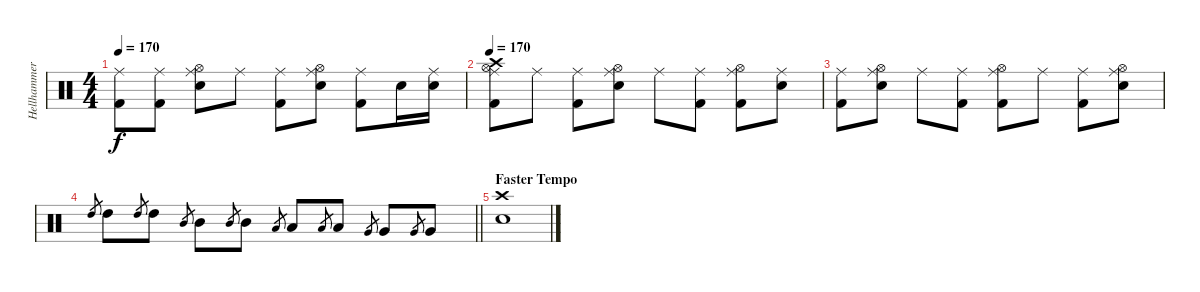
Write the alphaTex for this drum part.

\track ("Hellhammer" "Hellhammer") {instrument percussion}
\staff {score}
\articulation defaults
\ts (4 4)
\tempo 170
\clef neutral
\ks c
("Ride (middle)" "Kick (hit) 2").8{dy f} ("Ride (middle)" "Kick (hit) 2").8 ("Ride (middle)" "Hi-Hat (open)" "Snare (hit) 2").8 "Ride (middle)".8 ("Ride (middle)" "Kick (hit) 2").8 ("Ride (middle)" "Hi-Hat (open)" "Snare (hit) 2").8 ("Ride (middle)" "Kick (hit) 2").8 "Snare (hit) 2".16 ("Ride (middle)" "Snare (hit) 2").16 |
\tempo 170
("Ride (middle)" "Crash high (hit)" "Hi-Hat (open)" "Kick (hit) 2").8 "Ride (middle)".8 ("Ride (middle)" "Kick (hit) 2").8 ("Ride (middle)" "Hi-Hat (open)" "Snare (hit) 2").8 "Ride (middle)".8 ("Ride (middle)" "Kick (hit) 2").8 ("Ride (middle)" "Hi-Hat (open)" "Kick (hit) 2").8 ("Ride (middle)" "Snare (hit)").8 |
("Ride (middle)" "Kick (hit) 2").8 ("Ride (middle)" "Hi-Hat (open)" "Snare (hit) 2").8 "Ride (middle)".8 ("Ride (middle)" "Kick (hit) 2").8 ("Ride (middle)" "Hi-Hat (open)" "Kick (hit) 2").8 "Ride (middle)".8 ("Ride (middle)" "Kick (hit) 2").8 ("Ride (middle)" "Hi-Hat (open)" "Snare (hit) 2").8 |
\barLineRight lightlight "High Tom (hit)".8{gr} "High Tom (hit)".8 "High Tom (hit)".8{gr} "High Tom (hit)".8 "Mid Tom (hit)".8{gr} "Mid Tom (hit)".8 "Mid Tom (hit)".8{gr} "Mid Tom (hit)".8 "Low Tom (hit)".8{gr} "Low Tom (hit)".8 "Low Tom (hit)".8{gr} "Low Tom (hit)".8 "Very Low Tom (hit)".8{gr} "Very Low Tom (hit)".8 "Very Low Tom (hit)".8{gr} "Very Low Tom (hit)".8
|
\section ("" "Faster Tempo")
("Snare (hit) 2" "Crash high (hit)").1
